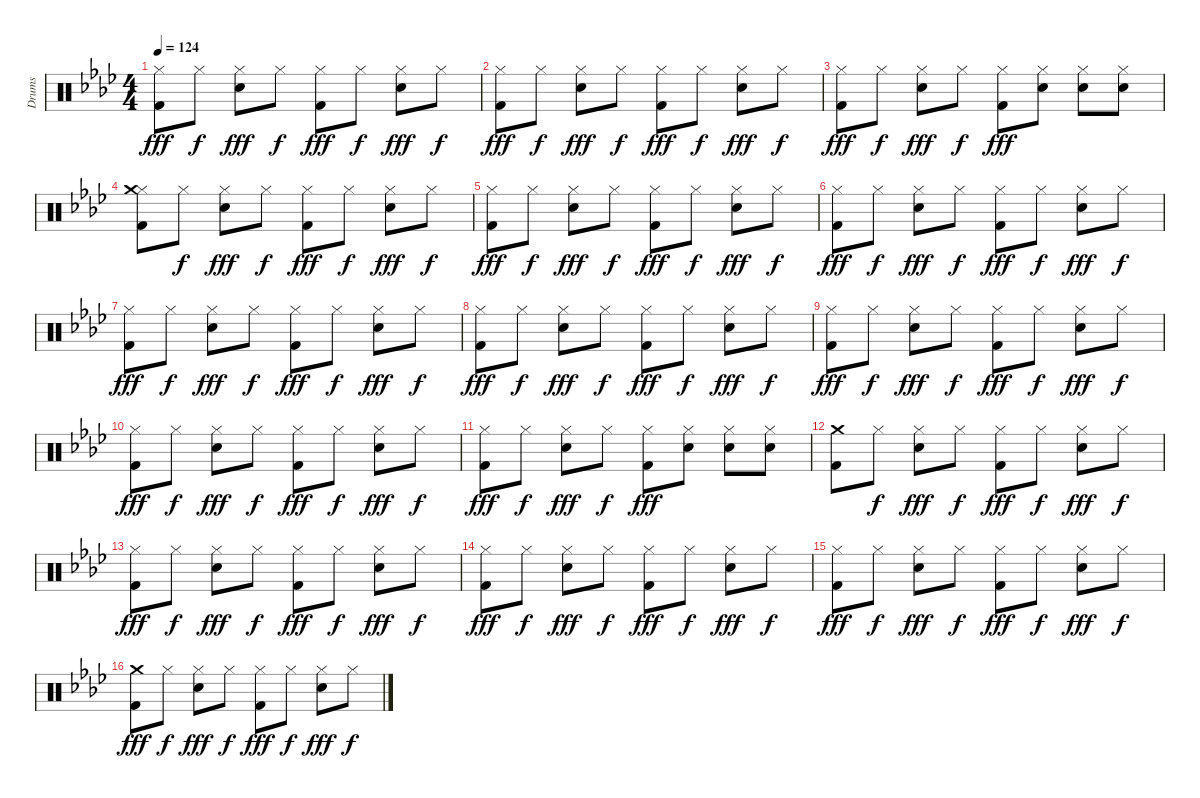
\track ("Drums" "Drums") {instrument percussion}
\staff {score}
\articulation defaults
\ts (4 4)
\tempo 124
\clef neutral
\ks ab
("Hi-Hat (closed)" "Kick (hit) 2").8{dy fff} "Hi-Hat (closed)".8{dy f} ("Hi-Hat (closed)" "Snare (hit) 2").8{dy fff} "Hi-Hat (closed)".8{dy f} ("Hi-Hat (closed)" "Kick (hit) 2").8{dy fff} "Hi-Hat (closed)".8{dy f} ("Hi-Hat (closed)" "Snare (hit) 2").8{dy fff} "Hi-Hat (closed)".8{dy f} |
("Hi-Hat (closed)" "Kick (hit) 2").8{dy fff} "Hi-Hat (closed)".8{dy f} ("Hi-Hat (closed)" "Snare (hit) 2").8{dy fff} "Hi-Hat (closed)".8{dy f} ("Hi-Hat (closed)" "Kick (hit) 2").8{dy fff} "Hi-Hat (closed)".8{dy f} ("Hi-Hat (closed)" "Snare (hit) 2").8{dy fff} "Hi-Hat (closed)".8{dy f} |
("Hi-Hat (closed)" "Kick (hit) 2").8{dy fff} "Hi-Hat (closed)".8{dy f} ("Hi-Hat (closed)" "Snare (hit) 2").8{dy fff} "Hi-Hat (closed)".8{dy f} ("Hi-Hat (closed)" "Kick (hit) 2").8{dy fff} ("Hi-Hat (closed)" "Snare (hit) 2").8 ("Hi-Hat (closed)" "Snare (hit) 2").8 ("Hi-Hat (closed)" "Snare (hit) 2").8 |
("Hi-Hat (closed)" "Crash medium (hit)" "Kick (hit) 2").8 "Hi-Hat (closed)".8{dy f} ("Hi-Hat (closed)" "Snare (hit) 2").8{dy fff} "Hi-Hat (closed)".8{dy f} ("Hi-Hat (closed)" "Kick (hit) 2").8{dy fff} "Hi-Hat (closed)".8{dy f} ("Hi-Hat (closed)" "Snare (hit) 2").8{dy fff} "Hi-Hat (closed)".8{dy f} |
("Hi-Hat (closed)" "Kick (hit) 2").8{dy fff} "Hi-Hat (closed)".8{dy f} ("Hi-Hat (closed)" "Snare (hit) 2").8{dy fff} "Hi-Hat (closed)".8{dy f} ("Hi-Hat (closed)" "Kick (hit) 2").8{dy fff} "Hi-Hat (closed)".8{dy f} ("Hi-Hat (closed)" "Snare (hit) 2").8{dy fff} "Hi-Hat (closed)".8{dy f} |
("Hi-Hat (closed)" "Kick (hit) 2").8{dy fff} "Hi-Hat (closed)".8{dy f} ("Hi-Hat (closed)" "Snare (hit) 2").8{dy fff} "Hi-Hat (closed)".8{dy f} ("Hi-Hat (closed)" "Kick (hit) 2").8{dy fff} "Hi-Hat (closed)".8{dy f} ("Hi-Hat (closed)" "Snare (hit) 2").8{dy fff} "Hi-Hat (closed)".8{dy f} |
("Hi-Hat (closed)" "Kick (hit) 2").8{dy fff} "Hi-Hat (closed)".8{dy f} ("Hi-Hat (closed)" "Snare (hit) 2").8{dy fff} "Hi-Hat (closed)".8{dy f} ("Hi-Hat (closed)" "Kick (hit) 2").8{dy fff} "Hi-Hat (closed)".8{dy f} ("Hi-Hat (closed)" "Snare (hit) 2").8{dy fff} "Hi-Hat (closed)".8{dy f} |
("Hi-Hat (closed)" "Kick (hit) 2").8{dy fff} "Hi-Hat (closed)".8{dy f} ("Hi-Hat (closed)" "Snare (hit) 2").8{dy fff} "Hi-Hat (closed)".8{dy f} ("Hi-Hat (closed)" "Kick (hit) 2").8{dy fff} "Hi-Hat (closed)".8{dy f} ("Hi-Hat (closed)" "Snare (hit) 2").8{dy fff} "Hi-Hat (closed)".8{dy f} |
("Hi-Hat (closed)" "Kick (hit) 2").8{dy fff} "Hi-Hat (closed)".8{dy f} ("Hi-Hat (closed)" "Snare (hit) 2").8{dy fff} "Hi-Hat (closed)".8{dy f} ("Hi-Hat (closed)" "Kick (hit) 2").8{dy fff} "Hi-Hat (closed)".8{dy f} ("Hi-Hat (closed)" "Snare (hit) 2").8{dy fff} "Hi-Hat (closed)".8{dy f} |
("Hi-Hat (closed)" "Kick (hit) 2").8{dy fff} "Hi-Hat (closed)".8{dy f} ("Hi-Hat (closed)" "Snare (hit) 2").8{dy fff} "Hi-Hat (closed)".8{dy f} ("Hi-Hat (closed)" "Kick (hit) 2").8{dy fff} "Hi-Hat (closed)".8{dy f} ("Hi-Hat (closed)" "Snare (hit) 2").8{dy fff} "Hi-Hat (closed)".8{dy f} |
("Hi-Hat (closed)" "Kick (hit) 2").8{dy fff} "Hi-Hat (closed)".8{dy f} ("Hi-Hat (closed)" "Snare (hit) 2").8{dy fff} "Hi-Hat (closed)".8{dy f} ("Hi-Hat (closed)" "Kick (hit) 2").8{dy fff} ("Hi-Hat (closed)" "Snare (hit) 2").8 ("Hi-Hat (closed)" "Snare (hit) 2").8 ("Hi-Hat (closed)" "Snare (hit) 2").8 |
("Crash medium (hit)" "Kick (hit) 2").8 "Hi-Hat (closed)".8{dy f} ("Hi-Hat (closed)" "Snare (hit) 2").8{dy fff} "Hi-Hat (closed)".8{dy f} ("Hi-Hat (closed)" "Kick (hit) 2").8{dy fff} "Hi-Hat (closed)".8{dy f} ("Hi-Hat (closed)" "Snare (hit) 2").8{dy fff} "Hi-Hat (closed)".8{dy f} |
("Hi-Hat (closed)" "Kick (hit) 2").8{dy fff} "Hi-Hat (closed)".8{dy f} ("Hi-Hat (closed)" "Snare (hit) 2").8{dy fff} "Hi-Hat (closed)".8{dy f} ("Hi-Hat (closed)" "Kick (hit) 2").8{dy fff} "Hi-Hat (closed)".8{dy f} ("Hi-Hat (closed)" "Snare (hit) 2").8{dy fff} "Hi-Hat (closed)".8{dy f} |
("Hi-Hat (closed)" "Kick (hit) 2").8{dy fff} "Hi-Hat (closed)".8{dy f} ("Hi-Hat (closed)" "Snare (hit) 2").8{dy fff} "Hi-Hat (closed)".8{dy f} ("Hi-Hat (closed)" "Kick (hit) 2").8{dy fff} "Hi-Hat (closed)".8{dy f} ("Hi-Hat (closed)" "Snare (hit) 2").8{dy fff} "Hi-Hat (closed)".8{dy f} |
("Hi-Hat (closed)" "Kick (hit) 2").8{dy fff} "Hi-Hat (closed)".8{dy f} ("Hi-Hat (closed)" "Snare (hit) 2").8{dy fff} "Hi-Hat (closed)".8{dy f} ("Hi-Hat (closed)" "Kick (hit) 2").8{dy fff} "Hi-Hat (closed)".8{dy f} ("Hi-Hat (closed)" "Snare (hit) 2").8{dy fff} "Hi-Hat (closed)".8{dy f} |
("Crash medium (hit)" "Kick (hit) 2").8{dy fff} "Hi-Hat (closed)".8{dy f} ("Hi-Hat (closed)" "Snare (hit) 2").8{dy fff} "Hi-Hat (closed)".8{dy f} ("Hi-Hat (closed)" "Kick (hit) 2").8{dy fff} "Hi-Hat (closed)".8{dy f} ("Hi-Hat (closed)" "Snare (hit) 2").8{dy fff} "Hi-Hat (closed)".8{dy f}
